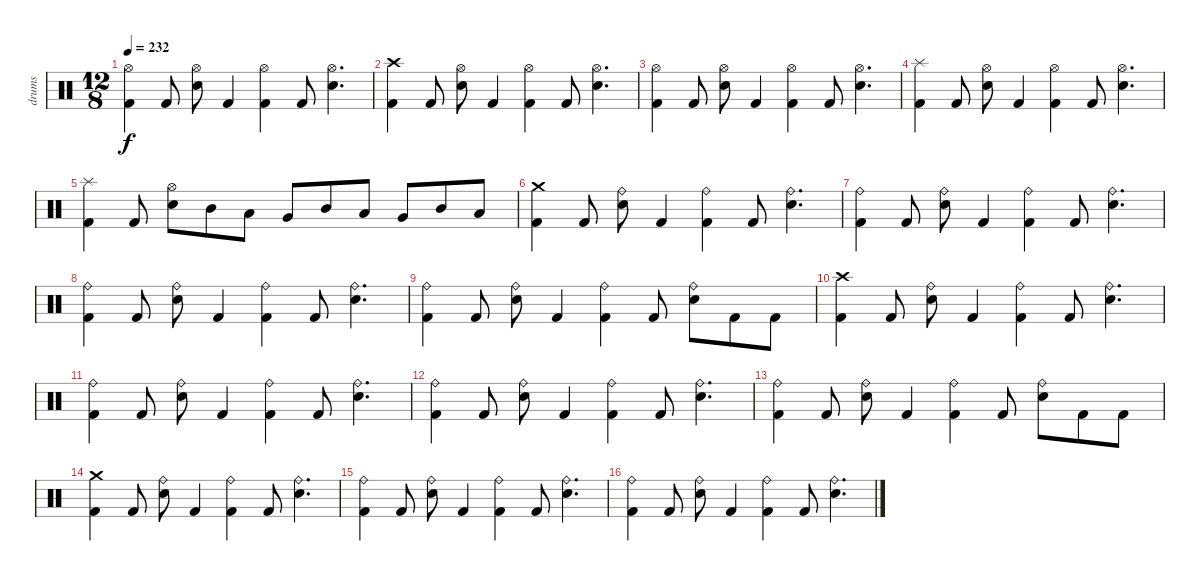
\track ("drums" "drums") {instrument percussion}
\staff {score}
\articulation defaults
\ts (12 8)
\tempo 232
\clef neutral
\ks c
("Hi-Hat (open)" "Kick (hit) 2").4{dy f} "Kick (hit) 2".8 ("Hi-Hat (open)" "Electric Snare (hit)").8 "Kick (hit) 2".4 ("Hi-Hat (open)" "Kick (hit) 2").4 "Kick (hit) 2".8 ("Hi-Hat (open)" "Electric Snare (hit)").4{d} |
("Kick (hit) 2" "Crash high (hit)").4 "Kick (hit) 2".8 ("Electric Snare (hit)" "Hi-Hat (open)").8 "Kick (hit) 2".4 ("Kick (hit) 2" "Hi-Hat (open)").4 "Kick (hit) 2".8 ("Electric Snare (hit)" "Hi-Hat (open)").4{d} |
("Hi-Hat (open)" "Kick (hit) 2").4 "Kick (hit) 2".8 ("Hi-Hat (open)" "Electric Snare (hit)").8 "Kick (hit) 2".4 ("Hi-Hat (open)" "Kick (hit) 2").4 "Kick (hit) 2".8 ("Hi-Hat (open)" "Electric Snare (hit)").4{d} |
("Splash (hit)" "Kick (hit) 2").4 "Kick (hit) 2".8 ("Hi-Hat (open)" "Electric Snare (hit)").8 "Kick (hit) 2".4 ("Hi-Hat (open)" "Kick (hit) 2").4 "Kick (hit) 2".8 ("Hi-Hat (open)" "Electric Snare (hit)").4{d} |
("Splash (hit)" "Kick (hit) 2").4 "Kick (hit) 2".8 ("Hi-Hat (open)" "Electric Snare (hit)").8 "Mid Tom (hit)".8 "Low Tom (hit)".8 "Very Low Tom (hit)".8 "Mid Tom (hit)".8 "Low Tom (hit)".8 "Very Low Tom (hit)".8 "Mid Tom (hit)".8 "Low Tom (hit)".8 |
("Crash medium (hit)" "Kick (hit) 2").4 "Kick (hit) 2".8 ("Ride (bell)" "Electric Snare (hit)").8 "Kick (hit) 2".4 ("Ride (bell)" "Kick (hit) 2").4 "Kick (hit) 2".8 ("Ride (bell)" "Electric Snare (hit)").4{d} |
("Ride (bell)" "Kick (hit) 2").4 "Kick (hit) 2".8 ("Ride (bell)" "Electric Snare (hit)").8 "Kick (hit) 2".4 ("Ride (bell)" "Kick (hit) 2").4 "Kick (hit) 2".8 ("Ride (bell)" "Electric Snare (hit)").4{d} |
("Kick (hit) 2" "Ride (bell)").4 "Kick (hit) 2".8 ("Ride (bell)" "Electric Snare (hit)").8 "Kick (hit) 2".4 ("Kick (hit) 2" "Ride (bell)").4 "Kick (hit) 2".8 ("Ride (bell)" "Electric Snare (hit)").4{d} |
("Kick (hit) 2" "Ride (bell)").4 "Kick (hit) 2".8 ("Ride (bell)" "Electric Snare (hit)").8 "Kick (hit) 2".4 ("Ride (bell)" "Kick (hit) 2").4 "Kick (hit) 2".8 ("Ride (bell)" "Electric Snare (hit)").8 "Kick (hit) 2".8 "Kick (hit) 2".8 |
("Crash high (hit)" "Kick (hit) 2").4 "Kick (hit) 2".8 ("Ride (bell)" "Electric Snare (hit)").8 "Kick (hit) 2".4 ("Ride (bell)" "Kick (hit) 2").4 "Kick (hit) 2".8 ("Ride (bell)" "Electric Snare (hit)").4{d} |
("Ride (bell)" "Kick (hit) 2").4 "Kick (hit) 2".8 ("Ride (bell)" "Electric Snare (hit)").8 "Kick (hit) 2".4 ("Ride (bell)" "Kick (hit) 2").4 "Kick (hit) 2".8 ("Ride (bell)" "Electric Snare (hit)").4{d} |
("Kick (hit) 2" "Ride (bell)").4 "Kick (hit) 2".8 ("Ride (bell)" "Electric Snare (hit)").8 "Kick (hit) 2".4 ("Kick (hit) 2" "Ride (bell)").4 "Kick (hit) 2".8 ("Ride (bell)" "Electric Snare (hit)").4{d} |
("Kick (hit) 2" "Ride (bell)").4 "Kick (hit) 2".8 ("Ride (bell)" "Electric Snare (hit)").8 "Kick (hit) 2".4 ("Ride (bell)" "Kick (hit) 2").4 "Kick (hit) 2".8 ("Ride (bell)" "Electric Snare (hit)").8 "Kick (hit) 2".8 "Kick (hit) 2".8 |
("Crash medium (hit)" "Kick (hit) 2").4 "Kick (hit) 2".8 ("Ride (bell)" "Electric Snare (hit)").8 "Kick (hit) 2".4 ("Ride (bell)" "Kick (hit) 2").4 "Kick (hit) 2".8 ("Ride (bell)" "Electric Snare (hit)").4{d} |
("Ride (bell)" "Kick (hit) 2").4 "Kick (hit) 2".8 ("Ride (bell)" "Electric Snare (hit)").8 "Kick (hit) 2".4 ("Ride (bell)" "Kick (hit) 2").4 "Kick (hit) 2".8 ("Ride (bell)" "Electric Snare (hit)").4{d} |
("Kick (hit) 2" "Ride (bell)").4 "Kick (hit) 2".8 ("Ride (bell)" "Electric Snare (hit)").8 "Kick (hit) 2".4 ("Kick (hit) 2" "Ride (bell)").4 "Kick (hit) 2".8 ("Ride (bell)" "Electric Snare (hit)").4{d}
